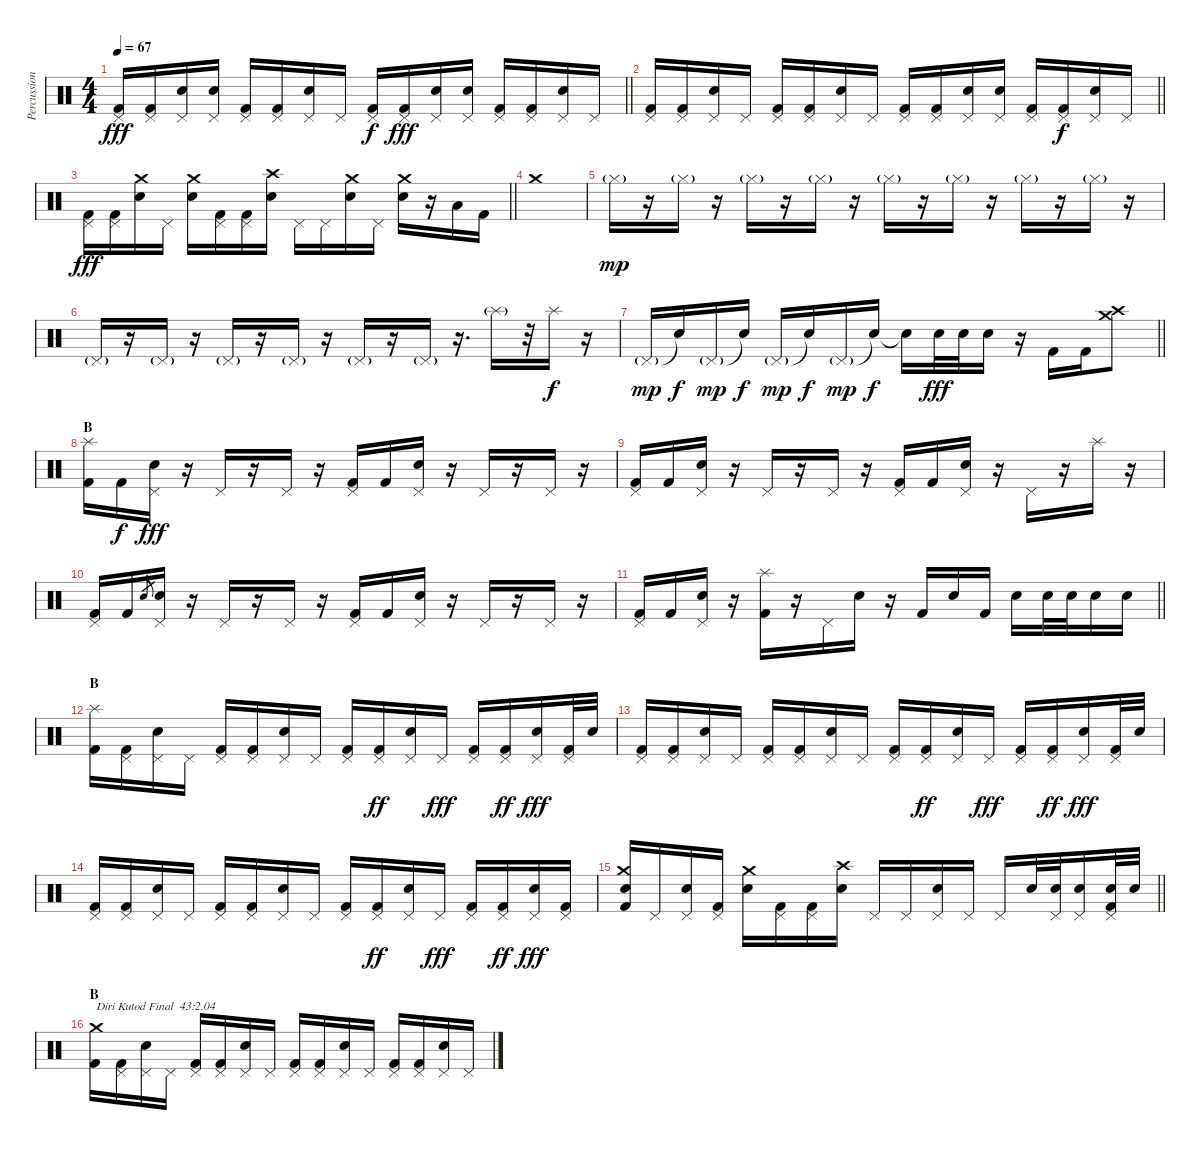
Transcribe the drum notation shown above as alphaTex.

\track ("Percussion" "Percussion") {instrument percussion}
\staff {score}
\articulation defaults
\ts (4 4)
\tempo 67
\clef neutral
\barLineRight lightlight
\ks c
("Pedal Hi-Hat (hit)" "Kick (hit) 2").16{dy fff} ("Pedal Hi-Hat (hit)" "Kick (hit) 2").16 ("Pedal Hi-Hat (hit)" "Snare (hit) 2").16 ("Pedal Hi-Hat (hit)" "Snare (hit) 2").16 ("Pedal Hi-Hat (hit)" "Kick (hit) 2").16 ("Pedal Hi-Hat (hit)" "Kick (hit) 2").16 ("Pedal Hi-Hat (hit)" "Snare (hit) 2").16 "Pedal Hi-Hat (hit)".16 ("Pedal Hi-Hat (hit)" "Kick (hit) 2").16{dy f} ("Pedal Hi-Hat (hit)" "Kick (hit) 2").16{dy fff} ("Pedal Hi-Hat (hit)" "Snare (hit) 2").16 ("Pedal Hi-Hat (hit)" "Snare (hit) 2").16 ("Pedal Hi-Hat (hit)" "Kick (hit) 2").16 ("Pedal Hi-Hat (hit)" "Kick (hit) 2").16 ("Pedal Hi-Hat (hit)" "Snare (hit) 2").16 "Pedal Hi-Hat (hit)".16 |
\barLineRight lightlight
("Pedal Hi-Hat (hit)" "Kick (hit) 2").16 ("Pedal Hi-Hat (hit)" "Kick (hit) 2").16 ("Pedal Hi-Hat (hit)" "Snare (hit) 2").16 "Pedal Hi-Hat (hit)".16 ("Pedal Hi-Hat (hit)" "Kick (hit) 2").16 ("Pedal Hi-Hat (hit)" "Kick (hit) 2").16 ("Pedal Hi-Hat (hit)" "Snare (hit) 2").16 "Pedal Hi-Hat (hit)".16 ("Pedal Hi-Hat (hit)" "Kick (hit) 2").16 ("Pedal Hi-Hat (hit)" "Kick (hit) 2").16 ("Pedal Hi-Hat (hit)" "Snare (hit) 2").16 ("Pedal Hi-Hat (hit)" "Snare (hit) 2").16 ("Pedal Hi-Hat (hit)" "Kick (hit) 2").16 ("Pedal Hi-Hat (hit)" "Kick (hit) 2").16{dy f} ("Pedal Hi-Hat (hit)" "Snare (hit) 2").16 "Pedal Hi-Hat (hit)".16 |
\barLineRight lightlight
("Pedal Hi-Hat (hit)" "Kick (hit) 2").16{dy fff} ("Pedal Hi-Hat (hit)" "Kick (hit) 2").16 ("Crash medium (hit)" "Electric Snare (hit)").16 "Pedal Hi-Hat (hit)".16 ("Crash medium (hit)" "Electric Snare (hit)").16 ("Pedal Hi-Hat (hit)" "Kick (hit) 2").16 ("Pedal Hi-Hat (hit)" "Kick (hit) 2").16 ("Crash high (hit)" "Electric Snare (hit)").16 "Pedal Hi-Hat (hit)".16 "Pedal Hi-Hat (hit)".16 ("Crash medium (hit)" "Electric Snare (hit)").16 "Pedal Hi-Hat (hit)".16 ("Crash medium (hit)" "Electric Snare (hit)").16 r.16 "Low Tom (hit)".16 "Kick (hit) 2".16 |
\section ("" "")
"Crash medium (hit)".1 |
"Hi-Hat (closed)"{g}.16{dy mp} r.16 "Hi-Hat (closed)"{g}.16 r.16 "Hi-Hat (closed)"{g}.16 r.16 "Hi-Hat (closed)"{g}.16 r.16 "Hi-Hat (closed)"{g}.16 r.16 "Hi-Hat (closed)"{g}.16 r.16 "Hi-Hat (closed)"{g}.16 r.16 "Hi-Hat (closed)"{g}.16 r.16 |
"Pedal Hi-Hat (hit)"{g}.16 r.16 "Pedal Hi-Hat (hit)"{g}.16 r.16 "Pedal Hi-Hat (hit)"{g}.16 r.16 "Pedal Hi-Hat (hit)"{g}.16 r.16 "Pedal Hi-Hat (hit)"{g}.16 r.16 "Pedal Hi-Hat (hit)"{g}.16 r.16{d} "Splash (hit)"{g}.16 r.32 "Splash (hit)".16{dy f} r.16 |
\barLineRight lightlight "Pedal Hi-Hat (hit)"{g}.16{dy mp} "Snare (hit)"{t}.16{dy f} "Pedal Hi-Hat (hit)"{g}.16{dy mp} "Snare (hit)"{t}.16{dy f} "Pedal Hi-Hat (hit)"{g}.16{dy mp} "Snare (hit)"{t}.16{dy f} "Pedal Hi-Hat (hit)"{g}.16{dy mp} "Snare (hit)"{t}.16{dy f} "Snare (hit)"{t}.16 "Electric Snare (hit)".32{dy fff} "Electric Snare (hit)".32 "Electric Snare (hit)".16
r.16 "Kick (hit) 2".16 "Kick (hit) 2".16 ("Crash medium (hit)" "Crash high (hit)").8 |
\section ("" "B")
("Splash (hit)" "Kick (hit) 2").16 "Kick (hit) 2".16{dy f} ("Pedal Hi-Hat (hit)" "Electric Snare (hit)").16{dy fff} r.16 "Pedal Hi-Hat (hit)".16 r.16 "Pedal Hi-Hat (hit)".16 r.16 ("Pedal Hi-Hat (hit)" "Kick (hit) 2").16 "Kick (hit) 2".16 ("Pedal Hi-Hat (hit)" "Electric Snare (hit)").16 r.16 "Pedal Hi-Hat (hit)".16 r.16 "Pedal Hi-Hat (hit)".16 r.16 |
("Pedal Hi-Hat (hit)" "Kick (hit) 2").16 "Kick (hit) 2".16 ("Pedal Hi-Hat (hit)" "Electric Snare (hit)").16 r.16 "Pedal Hi-Hat (hit)".16 r.16 "Pedal Hi-Hat (hit)".16 r.16 ("Pedal Hi-Hat (hit)" "Kick (hit) 2").16 "Kick (hit) 2".16 ("Pedal Hi-Hat (hit)" "Electric Snare (hit)").16 r.16 "Pedal Hi-Hat (hit)".16 r.16 "Splash (hit)".16 r.16 |
("Pedal Hi-Hat (hit)" "Kick (hit) 2").16 "Kick (hit) 2".16 "Snare (hit) 2".8{gr} ("Pedal Hi-Hat (hit)" "Electric Snare (hit)").16 r.16 "Pedal Hi-Hat (hit)".16 r.16 "Pedal Hi-Hat (hit)".16 r.16 ("Pedal Hi-Hat (hit)" "Kick (hit) 2").16 "Kick (hit) 2".16 ("Pedal Hi-Hat (hit)" "Electric Snare (hit)").16 r.16 "Pedal Hi-Hat (hit)".16 r.16 "Pedal Hi-Hat (hit)".16 r.16 |
\barLineRight lightlight
("Pedal Hi-Hat (hit)" "Kick (hit) 2").16 "Kick (hit) 2".16 ("Pedal Hi-Hat (hit)" "Electric Snare (hit)").16 r.16 ("Splash (hit)" "Kick (hit) 2").16 r.16 "Pedal Hi-Hat (hit)".16 "Electric Snare (hit)".16 r.16 "Kick (hit) 2".16 "Electric Snare (hit)".16 "Kick (hit) 2".16 "Electric Snare (hit)".16 "Electric Snare (hit)".32 "Electric Snare (hit)".32 "Electric Snare (hit)".16 "Electric Snare (hit)".16 |
\section ("" "B")
("Splash (hit)" "Kick (hit) 2").16 ("Pedal Hi-Hat (hit)" "Kick (hit) 2").16 ("Pedal Hi-Hat (hit)" "Electric Snare (hit)").16 "Pedal Hi-Hat (hit)".16 ("Pedal Hi-Hat (hit)" "Kick (hit) 2").16 ("Pedal Hi-Hat (hit)" "Kick (hit) 2").16 ("Pedal Hi-Hat (hit)" "Electric Snare (hit)").16 "Pedal Hi-Hat (hit)".16 ("Pedal Hi-Hat (hit)" "Kick (hit) 2").16 ("Pedal Hi-Hat (hit)" "Kick (hit) 2").16{dy ff} ("Pedal Hi-Hat (hit)" "Electric Snare (hit)").16 "Pedal Hi-Hat (hit)".16{dy fff} ("Pedal Hi-Hat (hit)" "Kick (hit) 2").16 ("Pedal Hi-Hat (hit)" "Kick (hit) 2").16{dy ff} ("Pedal Hi-Hat (hit)" "Electric Snare (hit)").16{dy fff} ("Pedal Hi-Hat (hit)" "Kick (hit) 2").32 "Electric Snare (hit)".32 |
("Pedal Hi-Hat (hit)" "Kick (hit) 2").16 ("Pedal Hi-Hat (hit)" "Kick (hit) 2").16 ("Pedal Hi-Hat (hit)" "Electric Snare (hit)").16 "Pedal Hi-Hat (hit)".16 ("Pedal Hi-Hat (hit)" "Kick (hit) 2").16 ("Pedal Hi-Hat (hit)" "Kick (hit) 2").16 ("Pedal Hi-Hat (hit)" "Electric Snare (hit)").16 "Pedal Hi-Hat (hit)".16 ("Pedal Hi-Hat (hit)" "Kick (hit) 2").16 ("Pedal Hi-Hat (hit)" "Kick (hit) 2").16{dy ff} ("Pedal Hi-Hat (hit)" "Electric Snare (hit)").16 "Pedal Hi-Hat (hit)".16{dy fff} ("Pedal Hi-Hat (hit)" "Kick (hit) 2").16 ("Pedal Hi-Hat (hit)" "Kick (hit) 2").16{dy ff} ("Pedal Hi-Hat (hit)" "Electric Snare (hit)").16{dy fff} ("Pedal Hi-Hat (hit)" "Kick (hit) 2").32 "Electric Snare (hit)".32 |
("Pedal Hi-Hat (hit)" "Kick (hit) 2").16 ("Pedal Hi-Hat (hit)" "Kick (hit) 2").16 ("Pedal Hi-Hat (hit)" "Electric Snare (hit)").16 "Pedal Hi-Hat (hit)".16 ("Pedal Hi-Hat (hit)" "Kick (hit) 2").16 ("Pedal Hi-Hat (hit)" "Kick (hit) 2").16 ("Pedal Hi-Hat (hit)" "Electric Snare (hit)").16 "Pedal Hi-Hat (hit)".16 ("Pedal Hi-Hat (hit)" "Kick (hit) 2").16 ("Pedal Hi-Hat (hit)" "Kick (hit) 2").16{dy ff} ("Pedal Hi-Hat (hit)" "Electric Snare (hit)").16 "Pedal Hi-Hat (hit)".16{dy fff} ("Pedal Hi-Hat (hit)" "Kick (hit) 2").16 ("Pedal Hi-Hat (hit)" "Kick (hit) 2").16{dy ff} ("Pedal Hi-Hat (hit)" "Electric Snare (hit)").16{dy fff} ("Pedal Hi-Hat (hit)" "Kick (hit) 2").16 |
\barLineRight lightlight
("Crash medium (hit)" "Electric Snare (hit)" "Kick (hit) 2").16 "Pedal Hi-Hat (hit)".16 ("Pedal Hi-Hat (hit)" "Electric Snare (hit)").16 ("Pedal Hi-Hat (hit)" "Kick (hit) 2").16 ("Crash medium (hit)" "Electric Snare (hit)").16 ("Pedal Hi-Hat (hit)" "Kick (hit) 2").16 ("Pedal Hi-Hat (hit)" "Kick (hit) 2").16 ("Crash high (hit)" "Electric Snare (hit)").16 "Pedal Hi-Hat (hit)".16 "Pedal Hi-Hat (hit)".16 ("Pedal Hi-Hat (hit)" "Electric Snare (hit)").16 "Pedal Hi-Hat (hit)".16 "Pedal Hi-Hat (hit)".16 "Electric Snare (hit)".32 ("Pedal Hi-Hat (hit)" "Electric Snare (hit)").32 ("Pedal Hi-Hat (hit)" "Electric Snare (hit)").16 ("Pedal Hi-Hat (hit)" "Electric Snare (hit)" "Kick (hit) 2").32 "Electric Snare (hit)".32 |
\section ("" "B")
("Crash medium (hit)" "Kick (hit) 2").16{txt "Diri Kutod Final  43:2.04"} ("Pedal Hi-Hat (hit)" "Kick (hit) 2").16 ("Pedal Hi-Hat (hit)" "Electric Snare (hit)").16 "Pedal Hi-Hat (hit)".16 ("Pedal Hi-Hat (hit)" "Kick (hit) 2").16 ("Pedal Hi-Hat (hit)" "Kick (hit) 2").16 ("Pedal Hi-Hat (hit)" "Electric Snare (hit)").16 "Pedal Hi-Hat (hit)".16 ("Pedal Hi-Hat (hit)" "Kick (hit) 2").16 ("Pedal Hi-Hat (hit)" "Kick (hit) 2").16 ("Pedal Hi-Hat (hit)" "Electric Snare (hit)").16 "Pedal Hi-Hat (hit)".16 ("Pedal Hi-Hat (hit)" "Kick (hit) 2").16 ("Pedal Hi-Hat (hit)" "Kick (hit) 2").16 ("Pedal Hi-Hat (hit)" "Electric Snare (hit)").16 "Pedal Hi-Hat (hit)".16
